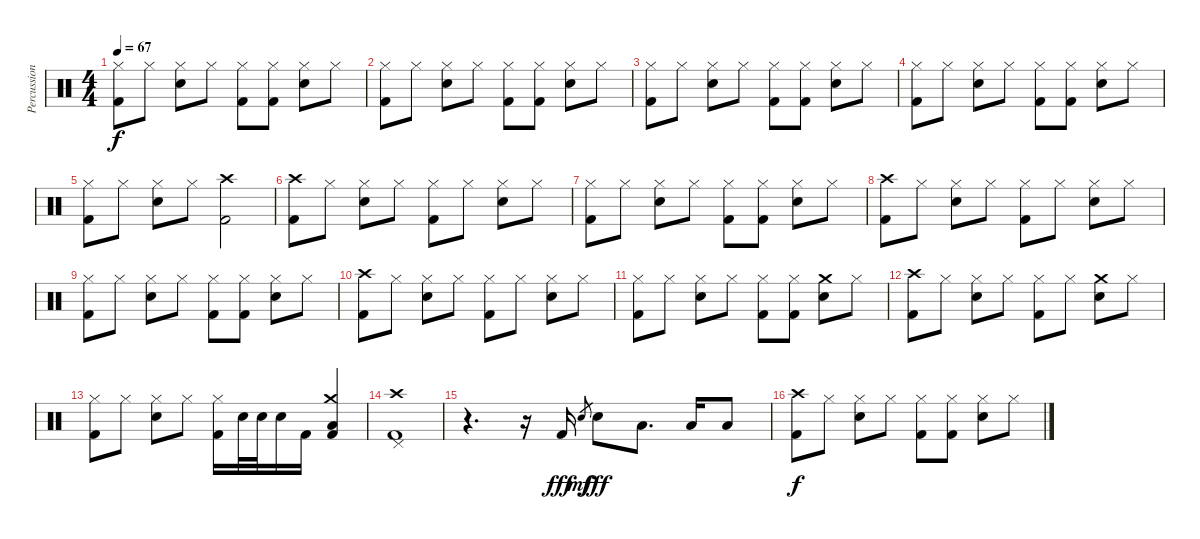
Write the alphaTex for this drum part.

\track ("Percussion" "Percussion") {instrument percussion}
\staff {score}
\articulation defaults
\ts (4 4)
\tempo 67
\clef neutral
\ks c
("Hi-Hat (closed)" "Kick (hit) 2").8{dy f} "Hi-Hat (closed)".8 ("Hi-Hat (closed)" "Electric Snare (hit)").8 "Hi-Hat (closed)".8 ("Hi-Hat (closed)" "Kick (hit) 2").8 ("Hi-Hat (closed)" "Kick (hit) 2").8 ("Hi-Hat (closed)" "Electric Snare (hit)").8 "Hi-Hat (closed)".8 |
("Hi-Hat (closed)" "Kick (hit) 2").8 "Hi-Hat (closed)".8 ("Hi-Hat (closed)" "Electric Snare (hit)").8 "Hi-Hat (closed)".8 ("Hi-Hat (closed)" "Kick (hit) 2").8 ("Hi-Hat (closed)" "Kick (hit) 2").8 ("Hi-Hat (closed)" "Electric Snare (hit)").8 "Hi-Hat (closed)".8 |
("Hi-Hat (closed)" "Kick (hit) 2").8 "Hi-Hat (closed)".8 ("Hi-Hat (closed)" "Electric Snare (hit)").8 "Hi-Hat (closed)".8 ("Hi-Hat (closed)" "Kick (hit) 2").8 ("Hi-Hat (closed)" "Kick (hit) 2").8 ("Hi-Hat (closed)" "Electric Snare (hit)").8 "Hi-Hat (closed)".8 |
("Hi-Hat (closed)" "Kick (hit) 2").8 "Hi-Hat (closed)".8 ("Hi-Hat (closed)" "Electric Snare (hit)").8 "Hi-Hat (closed)".8 ("Hi-Hat (closed)" "Kick (hit) 2").8 ("Hi-Hat (closed)" "Kick (hit) 2").8 ("Hi-Hat (closed)" "Electric Snare (hit)").8 "Hi-Hat (closed)".8 |
("Hi-Hat (closed)" "Kick (hit) 2").8 "Hi-Hat (closed)".8 ("Hi-Hat (closed)" "Electric Snare (hit)").8 "Hi-Hat (closed)".8 ("Crash high (hit)" "Kick (hit) 2").2 |
("Crash high (hit)" "Kick (hit) 2").8 "Hi-Hat (closed)".8 ("Hi-Hat (closed)" "Electric Snare (hit)").8 "Hi-Hat (closed)".8 ("Hi-Hat (closed)" "Kick (hit) 2").8 "Hi-Hat (closed)".8 ("Hi-Hat (closed)" "Electric Snare (hit)").8 "Hi-Hat (closed)".8 |
("Hi-Hat (closed)" "Kick (hit) 2").8 "Hi-Hat (closed)".8 ("Hi-Hat (closed)" "Electric Snare (hit)").8 "Hi-Hat (closed)".8 ("Hi-Hat (closed)" "Kick (hit) 2").8 ("Hi-Hat (closed)" "Kick (hit) 2").8 ("Hi-Hat (closed)" "Electric Snare (hit)").8 "Hi-Hat (closed)".8 |
("Crash high (hit)" "Kick (hit) 2").8 "Hi-Hat (closed)".8 ("Hi-Hat (closed)" "Electric Snare (hit)").8 "Hi-Hat (closed)".8 ("Hi-Hat (closed)" "Kick (hit) 2").8 "Hi-Hat (closed)".8 ("Hi-Hat (closed)" "Electric Snare (hit)").8 "Hi-Hat (closed)".8 |
("Hi-Hat (closed)" "Kick (hit) 2").8 "Hi-Hat (closed)".8 ("Hi-Hat (closed)" "Electric Snare (hit)").8 "Hi-Hat (closed)".8 ("Hi-Hat (closed)" "Kick (hit) 2").8 ("Hi-Hat (closed)" "Kick (hit) 2").8 ("Hi-Hat (closed)" "Electric Snare (hit)").8 "Hi-Hat (closed)".8 |
("Crash high (hit)" "Kick (hit) 2").8 "Hi-Hat (closed)".8 ("Hi-Hat (closed)" "Electric Snare (hit)").8 "Hi-Hat (closed)".8 ("Hi-Hat (closed)" "Kick (hit) 2").8 "Hi-Hat (closed)".8 ("Hi-Hat (closed)" "Electric Snare (hit)").8 "Hi-Hat (closed)".8 |
("Hi-Hat (closed)" "Kick (hit) 2").8 "Hi-Hat (closed)".8 ("Hi-Hat (closed)" "Electric Snare (hit)").8 "Hi-Hat (closed)".8 ("Hi-Hat (closed)" "Kick (hit) 2").8 ("Hi-Hat (closed)" "Kick (hit) 2").8 ("Crash medium (hit)" "Electric Snare (hit)").8 "Hi-Hat (closed)".8 |
("Crash high (hit)" "Kick (hit) 2").8 "Hi-Hat (closed)".8 ("Hi-Hat (closed)" "Electric Snare (hit)").8 "Hi-Hat (closed)".8 ("Hi-Hat (closed)" "Kick (hit) 2").8 "Hi-Hat (closed)".8 ("Crash medium (hit)" "Electric Snare (hit)").8 "Hi-Hat (closed)".8 |
("Hi-Hat (closed)" "Kick (hit) 2").8 "Hi-Hat (closed)".8 ("Hi-Hat (closed)" "Electric Snare (hit)").8 "Hi-Hat (closed)".8 ("Hi-Hat (closed)" "Kick (hit) 2").16 "Electric Snare (hit)".32 "Electric Snare (hit)".32 "Electric Snare (hit)".16 "Kick (hit) 2".16 ("Crash medium (hit)" "Low Floor Tom (hit)" "Kick (hit) 2").4 |
("Crash high (hit)" "Pedal Hi-Hat (hit)" "Kick (hit) 2").1 |
r.4{d} r.16 "Kick (hit) 2".16{dy fff} "Electric Snare (hit)".8{gr dy mf} "Electric Snare (hit)".8{dy fff} "Low Tom (hit)".8{d} "Low Floor Tom (hit)".16 "Low Floor Tom (hit)".8 |
("Crash high (hit)" "Kick (hit) 2").8{dy f} "Hi-Hat (closed)".8 ("Hi-Hat (closed)" "Electric Snare (hit)").8 "Hi-Hat (closed)".8 ("Hi-Hat (closed)" "Kick (hit) 2").8 ("Hi-Hat (closed)" "Kick (hit) 2").8 ("Hi-Hat (closed)" "Electric Snare (hit)").8 "Hi-Hat (closed)".8
